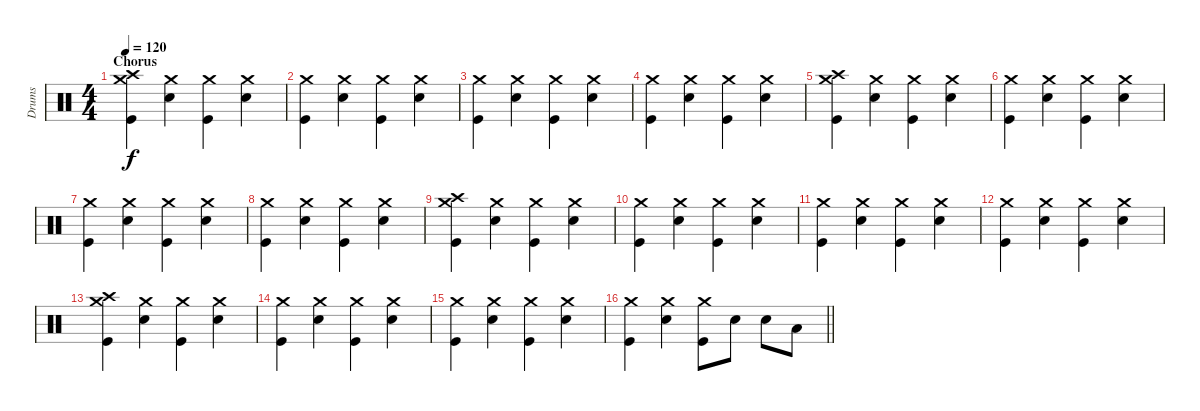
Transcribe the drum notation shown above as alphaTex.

\track ("Drums" "Drums") {instrument percussion}
\staff {score}
\articulation defaults
\ts (4 4)
\section ("" "Chorus")
\tempo 120
\clef neutral
\ks c
("Crash high (hit)" "Crash medium (hit)" "Kick (hit)").4{dy f} ("Crash medium (hit)" "Electric Snare (hit)").4 ("Crash medium (hit)" "Kick (hit)").4 ("Crash medium (hit)" "Electric Snare (hit)").4 |
("Crash medium (hit)" "Kick (hit)").4 ("Crash medium (hit)" "Electric Snare (hit)").4 ("Crash medium (hit)" "Kick (hit)").4 ("Crash medium (hit)" "Electric Snare (hit)").4 |
("Crash medium (hit)" "Kick (hit)").4 ("Crash medium (hit)" "Electric Snare (hit)").4 ("Crash medium (hit)" "Kick (hit)").4 ("Crash medium (hit)" "Electric Snare (hit)").4 |
("Crash medium (hit)" "Kick (hit)").4 ("Crash medium (hit)" "Electric Snare (hit)").4 ("Crash medium (hit)" "Kick (hit)").4 ("Crash medium (hit)" "Electric Snare (hit)").4 |
("Crash high (hit)" "Crash medium (hit)" "Kick (hit)").4 ("Crash medium (hit)" "Electric Snare (hit)").4 ("Crash medium (hit)" "Kick (hit)").4 ("Crash medium (hit)" "Electric Snare (hit)").4 |
("Crash medium (hit)" "Kick (hit)").4 ("Crash medium (hit)" "Electric Snare (hit)").4 ("Crash medium (hit)" "Kick (hit)").4 ("Crash medium (hit)" "Electric Snare (hit)").4 |
("Crash medium (hit)" "Kick (hit)").4 ("Crash medium (hit)" "Electric Snare (hit)").4 ("Crash medium (hit)" "Kick (hit)").4 ("Crash medium (hit)" "Electric Snare (hit)").4 |
("Crash medium (hit)" "Kick (hit)").4 ("Crash medium (hit)" "Electric Snare (hit)").4 ("Crash medium (hit)" "Kick (hit)").4 ("Crash medium (hit)" "Electric Snare (hit)").4 |
("Crash high (hit)" "Crash medium (hit)" "Kick (hit)").4 ("Crash medium (hit)" "Electric Snare (hit)").4 ("Crash medium (hit)" "Kick (hit)").4 ("Crash medium (hit)" "Electric Snare (hit)").4 |
("Crash medium (hit)" "Kick (hit)").4 ("Crash medium (hit)" "Electric Snare (hit)").4 ("Crash medium (hit)" "Kick (hit)").4 ("Crash medium (hit)" "Electric Snare (hit)").4 |
("Crash medium (hit)" "Kick (hit)").4 ("Crash medium (hit)" "Electric Snare (hit)").4 ("Crash medium (hit)" "Kick (hit)").4 ("Crash medium (hit)" "Electric Snare (hit)").4 |
("Crash medium (hit)" "Kick (hit)").4 ("Crash medium (hit)" "Electric Snare (hit)").4 ("Crash medium (hit)" "Kick (hit)").4 ("Crash medium (hit)" "Electric Snare (hit)").4 |
("Crash high (hit)" "Crash medium (hit)" "Kick (hit)").4 ("Crash medium (hit)" "Electric Snare (hit)").4 ("Crash medium (hit)" "Kick (hit)").4 ("Crash medium (hit)" "Electric Snare (hit)").4 |
("Crash medium (hit)" "Kick (hit)").4 ("Crash medium (hit)" "Electric Snare (hit)").4 ("Crash medium (hit)" "Kick (hit)").4 ("Crash medium (hit)" "Electric Snare (hit)").4 |
("Crash medium (hit)" "Kick (hit)").4 ("Crash medium (hit)" "Electric Snare (hit)").4 ("Crash medium (hit)" "Kick (hit)").4 ("Crash medium (hit)" "Electric Snare (hit)").4 |
\barLineRight lightlight
("Crash medium (hit)" "Kick (hit)").4 ("Crash medium (hit)" "Electric Snare (hit)").4 ("Crash medium (hit)" "Kick (hit)").8 "Electric Snare (hit)".8 "Electric Snare (hit)".8 "Low Tom (hit)".8
